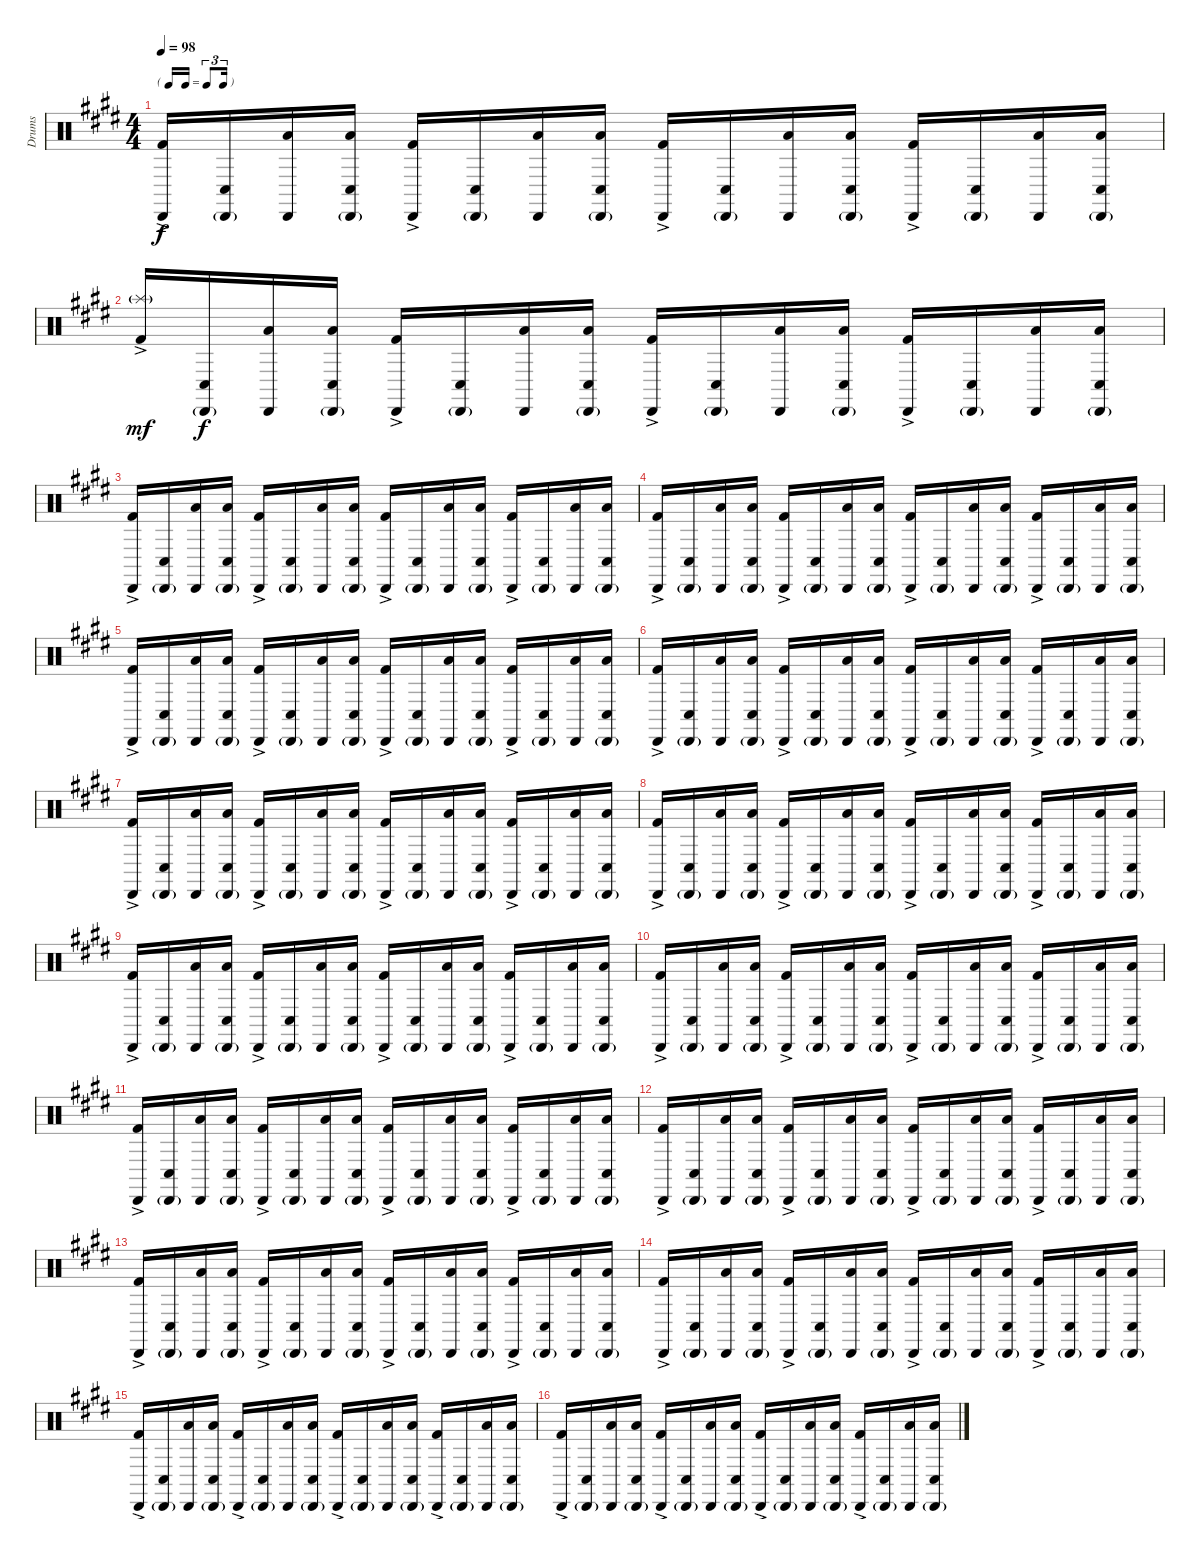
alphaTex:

\track ("Drums" "Drums") {instrument percussion}
\staff {score}
\articulation defaults
\ts (4 4)
\tf triplet16th
\tempo 98
\clef neutral
\ks e
("Cabasa (hit)" "Kick (hit) 2"{ac}).16{dy f} ("Cabasa (hit)"{g} "Conga low (hit)").16 ("Cabasa (hit)" "Low Tom (hit)").16 ("Cabasa (hit)"{g} "Low Tom (hit)" "Conga low (hit)").16 ("Cabasa (hit)" "Kick (hit) 2"{ac}).16 ("Cabasa (hit)"{g} "Conga low (hit)").16 ("Cabasa (hit)" "Low Tom (hit)").16 ("Cabasa (hit)"{g} "Low Tom (hit)" "Conga low (hit)").16 ("Cabasa (hit)" "Kick (hit) 2"{ac}).16 ("Cabasa (hit)"{g} "Conga low (hit)").16 ("Cabasa (hit)" "Low Tom (hit)").16 ("Cabasa (hit)"{g} "Low Tom (hit)" "Conga low (hit)").16 ("Cabasa (hit)" "Kick (hit) 2"{ac}).16 ("Cabasa (hit)"{g} "Conga low (hit)").16 ("Cabasa (hit)" "Low Tom (hit)").16 ("Cabasa (hit)"{g} "Low Tom (hit)" "Conga low (hit)").16 |
("Splash (hit)"{g} "Kick (hit) 2"{ac}).16{dy mf} ("Cabasa (hit)"{g} "Conga low (hit)").16{dy f} ("Cabasa (hit)" "Low Tom (hit)").16 ("Cabasa (hit)"{g} "Low Tom (hit)" "Conga low (hit)").16 ("Cabasa (hit)" "Kick (hit) 2"{ac}).16 ("Cabasa (hit)"{g} "Conga low (hit)").16 ("Cabasa (hit)" "Low Tom (hit)").16 ("Cabasa (hit)"{g} "Low Tom (hit)" "Conga low (hit)").16 ("Cabasa (hit)" "Kick (hit) 2"{ac}).16 ("Cabasa (hit)"{g} "Conga low (hit)").16 ("Cabasa (hit)" "Low Tom (hit)").16 ("Cabasa (hit)"{g} "Low Tom (hit)" "Conga low (hit)").16 ("Cabasa (hit)" "Kick (hit) 2"{ac}).16 ("Cabasa (hit)"{g} "Conga low (hit)").16 ("Cabasa (hit)" "Low Tom (hit)").16 ("Cabasa (hit)"{g} "Low Tom (hit)" "Conga low (hit)").16 |
("Cabasa (hit)" "Kick (hit) 2"{ac}).16 ("Cabasa (hit)"{g} "Conga low (hit)").16 ("Cabasa (hit)" "Low Tom (hit)").16 ("Cabasa (hit)"{g} "Low Tom (hit)" "Conga low (hit)").16 ("Cabasa (hit)" "Kick (hit) 2"{ac}).16 ("Cabasa (hit)"{g} "Conga low (hit)").16 ("Cabasa (hit)" "Low Tom (hit)").16 ("Cabasa (hit)"{g} "Low Tom (hit)" "Conga low (hit)").16 ("Cabasa (hit)" "Kick (hit) 2"{ac}).16 ("Cabasa (hit)"{g} "Conga low (hit)").16 ("Cabasa (hit)" "Low Tom (hit)").16 ("Cabasa (hit)"{g} "Low Tom (hit)" "Conga low (hit)").16 ("Cabasa (hit)" "Kick (hit) 2"{ac}).16 ("Cabasa (hit)"{g} "Conga low (hit)").16 ("Cabasa (hit)" "Low Tom (hit)").16 ("Cabasa (hit)"{g} "Low Tom (hit)" "Conga low (hit)").16 |
("Cabasa (hit)" "Kick (hit) 2"{ac}).16 ("Cabasa (hit)"{g} "Conga low (hit)").16 ("Cabasa (hit)" "Low Tom (hit)").16 ("Cabasa (hit)"{g} "Low Tom (hit)" "Conga low (hit)").16 ("Cabasa (hit)" "Kick (hit) 2"{ac}).16 ("Cabasa (hit)"{g} "Conga low (hit)").16 ("Cabasa (hit)" "Low Tom (hit)").16 ("Cabasa (hit)"{g} "Low Tom (hit)" "Conga low (hit)").16 ("Cabasa (hit)" "Kick (hit) 2"{ac}).16 ("Cabasa (hit)"{g} "Conga low (hit)").16 ("Cabasa (hit)" "Low Tom (hit)").16 ("Cabasa (hit)"{g} "Low Tom (hit)" "Conga low (hit)").16 ("Cabasa (hit)" "Kick (hit) 2"{ac}).16 ("Cabasa (hit)"{g} "Conga low (hit)").16 ("Cabasa (hit)" "Low Tom (hit)").16 ("Cabasa (hit)"{g} "Low Tom (hit)" "Conga low (hit)").16 |
("Cabasa (hit)" "Kick (hit) 2"{ac}).16 ("Cabasa (hit)"{g} "Conga low (hit)").16 ("Cabasa (hit)" "Low Tom (hit)").16 ("Cabasa (hit)"{g} "Low Tom (hit)" "Conga low (hit)").16 ("Cabasa (hit)" "Kick (hit) 2"{ac}).16 ("Cabasa (hit)"{g} "Conga low (hit)").16 ("Cabasa (hit)" "Low Tom (hit)").16 ("Cabasa (hit)"{g} "Low Tom (hit)" "Conga low (hit)").16 ("Cabasa (hit)" "Kick (hit) 2"{ac}).16 ("Cabasa (hit)"{g} "Conga low (hit)").16 ("Cabasa (hit)" "Low Tom (hit)").16 ("Cabasa (hit)"{g} "Low Tom (hit)" "Conga low (hit)").16 ("Cabasa (hit)" "Kick (hit) 2"{ac}).16 ("Cabasa (hit)"{g} "Conga low (hit)").16 ("Cabasa (hit)" "Low Tom (hit)").16 ("Cabasa (hit)"{g} "Low Tom (hit)" "Conga low (hit)").16 |
("Cabasa (hit)" "Kick (hit) 2"{ac}).16 ("Cabasa (hit)"{g} "Conga low (hit)").16 ("Cabasa (hit)" "Low Tom (hit)").16 ("Cabasa (hit)"{g} "Low Tom (hit)" "Conga low (hit)").16 ("Cabasa (hit)" "Kick (hit) 2"{ac}).16 ("Cabasa (hit)"{g} "Conga low (hit)").16 ("Cabasa (hit)" "Low Tom (hit)").16 ("Cabasa (hit)"{g} "Low Tom (hit)" "Conga low (hit)").16 ("Cabasa (hit)" "Kick (hit) 2"{ac}).16 ("Cabasa (hit)"{g} "Conga low (hit)").16 ("Cabasa (hit)" "Low Tom (hit)").16 ("Cabasa (hit)"{g} "Low Tom (hit)" "Conga low (hit)").16 ("Cabasa (hit)" "Kick (hit) 2"{ac}).16 ("Cabasa (hit)"{g} "Conga low (hit)").16 ("Cabasa (hit)" "Low Tom (hit)").16 ("Cabasa (hit)"{g} "Low Tom (hit)" "Conga low (hit)").16 |
("Cabasa (hit)" "Kick (hit) 2"{ac}).16 ("Cabasa (hit)"{g} "Conga low (hit)").16 ("Cabasa (hit)" "Low Tom (hit)").16 ("Cabasa (hit)"{g} "Low Tom (hit)" "Conga low (hit)").16 ("Cabasa (hit)" "Kick (hit) 2"{ac}).16 ("Cabasa (hit)"{g} "Conga low (hit)").16 ("Cabasa (hit)" "Low Tom (hit)").16 ("Cabasa (hit)"{g} "Low Tom (hit)" "Conga low (hit)").16 ("Cabasa (hit)" "Kick (hit) 2"{ac}).16 ("Cabasa (hit)"{g} "Conga low (hit)").16 ("Cabasa (hit)" "Low Tom (hit)").16 ("Cabasa (hit)"{g} "Low Tom (hit)" "Conga low (hit)").16 ("Cabasa (hit)" "Kick (hit) 2"{ac}).16 ("Cabasa (hit)"{g} "Conga low (hit)").16 ("Cabasa (hit)" "Low Tom (hit)").16 ("Cabasa (hit)"{g} "Low Tom (hit)" "Conga low (hit)").16 |
("Cabasa (hit)" "Kick (hit) 2"{ac}).16 ("Cabasa (hit)"{g} "Conga low (hit)").16 ("Cabasa (hit)" "Low Tom (hit)").16 ("Cabasa (hit)"{g} "Low Tom (hit)" "Conga low (hit)").16 ("Cabasa (hit)" "Kick (hit) 2"{ac}).16 ("Cabasa (hit)"{g} "Conga low (hit)").16 ("Cabasa (hit)" "Low Tom (hit)").16 ("Cabasa (hit)"{g} "Low Tom (hit)" "Conga low (hit)").16 ("Cabasa (hit)" "Kick (hit) 2"{ac}).16 ("Cabasa (hit)"{g} "Conga low (hit)").16 ("Cabasa (hit)" "Low Tom (hit)").16 ("Cabasa (hit)"{g} "Low Tom (hit)" "Conga low (hit)").16 ("Cabasa (hit)" "Kick (hit) 2"{ac}).16 ("Cabasa (hit)"{g} "Conga low (hit)").16 ("Cabasa (hit)" "Low Tom (hit)").16 ("Cabasa (hit)"{g} "Low Tom (hit)" "Conga low (hit)").16 |
("Cabasa (hit)" "Kick (hit) 2"{ac}).16 ("Cabasa (hit)"{g} "Conga low (hit)").16 ("Cabasa (hit)" "Low Tom (hit)").16 ("Cabasa (hit)"{g} "Low Tom (hit)" "Conga low (hit)").16 ("Cabasa (hit)" "Kick (hit) 2"{ac}).16 ("Cabasa (hit)"{g} "Conga low (hit)").16 ("Cabasa (hit)" "Low Tom (hit)").16 ("Cabasa (hit)"{g} "Low Tom (hit)" "Conga low (hit)").16 ("Cabasa (hit)" "Kick (hit) 2"{ac}).16 ("Cabasa (hit)"{g} "Conga low (hit)").16 ("Cabasa (hit)" "Low Tom (hit)").16 ("Cabasa (hit)"{g} "Low Tom (hit)" "Conga low (hit)").16 ("Cabasa (hit)" "Kick (hit) 2"{ac}).16 ("Cabasa (hit)"{g} "Conga low (hit)").16 ("Cabasa (hit)" "Low Tom (hit)").16 ("Cabasa (hit)"{g} "Low Tom (hit)" "Conga low (hit)").16 |
("Cabasa (hit)" "Kick (hit) 2"{ac}).16 ("Cabasa (hit)"{g} "Conga low (hit)").16 ("Cabasa (hit)" "Low Tom (hit)").16 ("Cabasa (hit)"{g} "Low Tom (hit)" "Conga low (hit)").16 ("Cabasa (hit)" "Kick (hit) 2"{ac}).16 ("Cabasa (hit)"{g} "Conga low (hit)").16 ("Cabasa (hit)" "Low Tom (hit)").16 ("Cabasa (hit)"{g} "Low Tom (hit)" "Conga low (hit)").16 ("Cabasa (hit)" "Kick (hit) 2"{ac}).16 ("Cabasa (hit)"{g} "Conga low (hit)").16 ("Cabasa (hit)" "Low Tom (hit)").16 ("Cabasa (hit)"{g} "Low Tom (hit)" "Conga low (hit)").16 ("Cabasa (hit)" "Kick (hit) 2"{ac}).16 ("Cabasa (hit)"{g} "Conga low (hit)").16 ("Cabasa (hit)" "Low Tom (hit)").16 ("Cabasa (hit)"{g} "Low Tom (hit)" "Conga low (hit)").16 |
("Cabasa (hit)" "Kick (hit) 2"{ac}).16 ("Cabasa (hit)"{g} "Conga low (hit)").16 ("Cabasa (hit)" "Low Tom (hit)").16 ("Cabasa (hit)"{g} "Low Tom (hit)" "Conga low (hit)").16 ("Cabasa (hit)" "Kick (hit) 2"{ac}).16 ("Cabasa (hit)"{g} "Conga low (hit)").16 ("Cabasa (hit)" "Low Tom (hit)").16 ("Cabasa (hit)"{g} "Low Tom (hit)" "Conga low (hit)").16 ("Cabasa (hit)" "Kick (hit) 2"{ac}).16 ("Cabasa (hit)"{g} "Conga low (hit)").16 ("Cabasa (hit)" "Low Tom (hit)").16 ("Cabasa (hit)"{g} "Low Tom (hit)" "Conga low (hit)").16 ("Cabasa (hit)" "Kick (hit) 2"{ac}).16 ("Cabasa (hit)"{g} "Conga low (hit)").16 ("Cabasa (hit)" "Low Tom (hit)").16 ("Cabasa (hit)"{g} "Low Tom (hit)" "Conga low (hit)").16 |
("Cabasa (hit)" "Kick (hit) 2"{ac}).16 ("Cabasa (hit)"{g} "Conga low (hit)").16 ("Cabasa (hit)" "Low Tom (hit)").16 ("Cabasa (hit)"{g} "Low Tom (hit)" "Conga low (hit)").16 ("Cabasa (hit)" "Kick (hit) 2"{ac}).16 ("Cabasa (hit)"{g} "Conga low (hit)").16 ("Cabasa (hit)" "Low Tom (hit)").16 ("Cabasa (hit)"{g} "Low Tom (hit)" "Conga low (hit)").16 ("Cabasa (hit)" "Kick (hit) 2"{ac}).16 ("Cabasa (hit)"{g} "Conga low (hit)").16 ("Cabasa (hit)" "Low Tom (hit)").16 ("Cabasa (hit)"{g} "Low Tom (hit)" "Conga low (hit)").16 ("Cabasa (hit)" "Kick (hit) 2"{ac}).16 ("Cabasa (hit)"{g} "Conga low (hit)").16 ("Cabasa (hit)" "Low Tom (hit)").16 ("Cabasa (hit)"{g} "Low Tom (hit)" "Conga low (hit)").16 |
("Cabasa (hit)" "Kick (hit) 2"{ac}).16 ("Cabasa (hit)"{g} "Conga low (hit)").16 ("Cabasa (hit)" "Low Tom (hit)").16 ("Cabasa (hit)"{g} "Low Tom (hit)" "Conga low (hit)").16 ("Cabasa (hit)" "Kick (hit) 2"{ac}).16 ("Cabasa (hit)"{g} "Conga low (hit)").16 ("Cabasa (hit)" "Low Tom (hit)").16 ("Cabasa (hit)"{g} "Low Tom (hit)" "Conga low (hit)").16 ("Cabasa (hit)" "Kick (hit) 2"{ac}).16 ("Cabasa (hit)"{g} "Conga low (hit)").16 ("Cabasa (hit)" "Low Tom (hit)").16 ("Cabasa (hit)"{g} "Low Tom (hit)" "Conga low (hit)").16 ("Cabasa (hit)" "Kick (hit) 2"{ac}).16 ("Cabasa (hit)"{g} "Conga low (hit)").16 ("Cabasa (hit)" "Low Tom (hit)").16 ("Cabasa (hit)"{g} "Low Tom (hit)" "Conga low (hit)").16 |
("Cabasa (hit)" "Kick (hit) 2"{ac}).16 ("Cabasa (hit)"{g} "Conga low (hit)").16 ("Cabasa (hit)" "Low Tom (hit)").16 ("Cabasa (hit)"{g} "Low Tom (hit)" "Conga low (hit)").16 ("Cabasa (hit)" "Kick (hit) 2"{ac}).16 ("Cabasa (hit)"{g} "Conga low (hit)").16 ("Cabasa (hit)" "Low Tom (hit)").16 ("Cabasa (hit)"{g} "Low Tom (hit)" "Conga low (hit)").16 ("Cabasa (hit)" "Kick (hit) 2"{ac}).16 ("Cabasa (hit)"{g} "Conga low (hit)").16 ("Cabasa (hit)" "Low Tom (hit)").16 ("Cabasa (hit)"{g} "Low Tom (hit)" "Conga low (hit)").16 ("Cabasa (hit)" "Kick (hit) 2"{ac}).16 ("Cabasa (hit)"{g} "Conga low (hit)").16 ("Cabasa (hit)" "Low Tom (hit)").16 ("Cabasa (hit)"{g} "Low Tom (hit)" "Conga low (hit)").16 |
("Cabasa (hit)" "Kick (hit) 2"{ac}).16 ("Cabasa (hit)"{g} "Conga low (hit)").16 ("Cabasa (hit)" "Low Tom (hit)").16 ("Cabasa (hit)"{g} "Low Tom (hit)" "Conga low (hit)").16 ("Cabasa (hit)" "Kick (hit) 2"{ac}).16 ("Cabasa (hit)"{g} "Conga low (hit)").16 ("Cabasa (hit)" "Low Tom (hit)").16 ("Cabasa (hit)"{g} "Low Tom (hit)" "Conga low (hit)").16 ("Cabasa (hit)" "Kick (hit) 2"{ac}).16 ("Cabasa (hit)"{g} "Conga low (hit)").16 ("Cabasa (hit)" "Low Tom (hit)").16 ("Cabasa (hit)"{g} "Low Tom (hit)" "Conga low (hit)").16 ("Cabasa (hit)" "Kick (hit) 2"{ac}).16 ("Cabasa (hit)"{g} "Conga low (hit)").16 ("Cabasa (hit)" "Low Tom (hit)").16 ("Cabasa (hit)"{g} "Low Tom (hit)" "Conga low (hit)").16 |
("Cabasa (hit)" "Kick (hit) 2"{ac}).16 ("Cabasa (hit)"{g} "Conga low (hit)").16 ("Cabasa (hit)" "Low Tom (hit)").16 ("Cabasa (hit)"{g} "Low Tom (hit)" "Conga low (hit)").16 ("Cabasa (hit)" "Kick (hit) 2"{ac}).16 ("Cabasa (hit)"{g} "Conga low (hit)").16 ("Cabasa (hit)" "Low Tom (hit)").16 ("Cabasa (hit)"{g} "Low Tom (hit)" "Conga low (hit)").16 ("Cabasa (hit)" "Kick (hit) 2"{ac}).16 ("Cabasa (hit)"{g} "Conga low (hit)").16 ("Cabasa (hit)" "Low Tom (hit)").16 ("Cabasa (hit)"{g} "Low Tom (hit)" "Conga low (hit)").16 ("Cabasa (hit)" "Kick (hit) 2"{ac}).16 ("Cabasa (hit)"{g} "Conga low (hit)").16 ("Cabasa (hit)" "Low Tom (hit)").16 ("Cabasa (hit)"{g} "Low Tom (hit)" "Conga low (hit)").16
